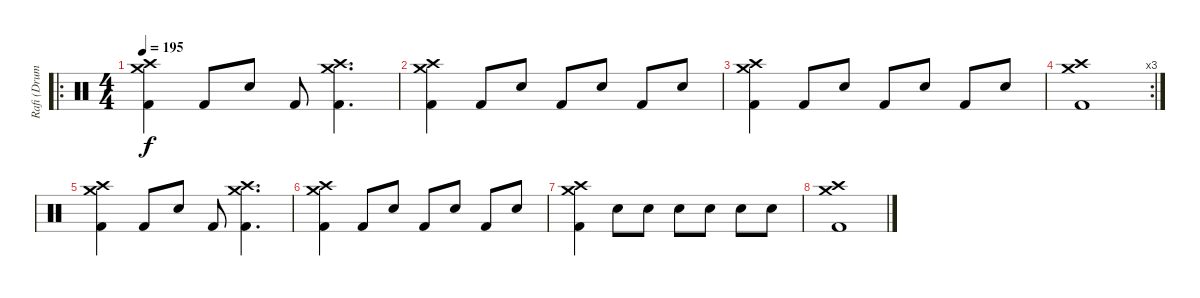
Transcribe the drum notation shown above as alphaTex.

\track ("Rafi (Drums)" "Rafi (Drum") {instrument percussion}
\staff {score}
\articulation defaults
\ro
\ts (4 4)
\tempo 195
\clef neutral
\ks c
("Crash medium (hit)" "Crash high (hit)" "Kick (hit) 2").4{dy f} "Kick (hit) 2".8 "Snare (hit) 2".8 "Kick (hit) 2".8 ("Crash medium (hit)" "Crash high (hit)" "Kick (hit) 2").4{d} |
("Crash medium (hit)" "Crash high (hit)" "Kick (hit) 2").4 "Kick (hit) 2".8 "Snare (hit) 2".8 "Kick (hit) 2".8 "Snare (hit) 2".8 "Kick (hit) 2".8 "Snare (hit) 2".8 |
("Crash medium (hit)" "Crash high (hit)" "Kick (hit) 2").4 "Kick (hit) 2".8 "Snare (hit) 2".8 "Kick (hit) 2".8 "Snare (hit) 2".8 "Kick (hit) 2".8 "Snare (hit) 2".8 |
\rc 3
("Crash medium (hit)" "Crash high (hit)" "Kick (hit) 2").1 |
("Crash medium (hit)" "Crash high (hit)" "Kick (hit) 2").4 "Kick (hit) 2".8 "Snare (hit) 2".8 "Kick (hit) 2".8 ("Crash medium (hit)" "Crash high (hit)" "Kick (hit) 2").4{d} |
("Crash medium (hit)" "Crash high (hit)" "Kick (hit) 2").4 "Kick (hit) 2".8 "Snare (hit) 2".8 "Kick (hit) 2".8 "Snare (hit) 2".8 "Kick (hit) 2".8 "Snare (hit) 2".8 |
("Crash medium (hit)" "Crash high (hit)" "Kick (hit) 2").4 "Snare (hit) 2".8 "Snare (hit) 2".8 "Snare (hit) 2".8 "Snare (hit) 2".8 "Snare (hit) 2".8 "Snare (hit) 2".8 |
("Crash medium (hit)" "Crash high (hit)" "Kick (hit) 2").1
